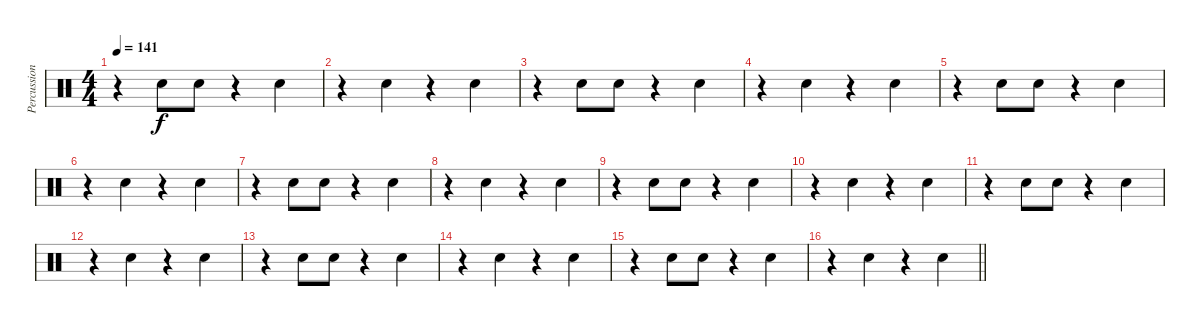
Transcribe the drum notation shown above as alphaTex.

\track ("Percussion" "Percussion") {instrument percussion}
\staff {score}
\articulation defaults
\ts (4 4)
\tempo 141
\clef neutral
\ks c
r.4{dy f} "Hand Clap (hit)".8 "Hand Clap (hit)".8 r.4 "Hand Clap (hit)".4 |
r.4 "Hand Clap (hit)".4 r.4 "Hand Clap (hit)".4 |
r.4 "Hand Clap (hit)".8 "Hand Clap (hit)".8 r.4 "Hand Clap (hit)".4 |
r.4 "Hand Clap (hit)".4 r.4 "Hand Clap (hit)".4 |
r.4 "Hand Clap (hit)".8 "Hand Clap (hit)".8 r.4 "Hand Clap (hit)".4 |
r.4 "Hand Clap (hit)".4 r.4 "Hand Clap (hit)".4 |
r.4 "Hand Clap (hit)".8 "Hand Clap (hit)".8 r.4 "Hand Clap (hit)".4 |
r.4 "Hand Clap (hit)".4 r.4 "Hand Clap (hit)".4 |
r.4 "Hand Clap (hit)".8 "Hand Clap (hit)".8 r.4 "Hand Clap (hit)".4 |
r.4 "Hand Clap (hit)".4 r.4 "Hand Clap (hit)".4 |
r.4 "Hand Clap (hit)".8 "Hand Clap (hit)".8 r.4 "Hand Clap (hit)".4 |
r.4 "Hand Clap (hit)".4 r.4 "Hand Clap (hit)".4 |
r.4 "Hand Clap (hit)".8 "Hand Clap (hit)".8 r.4 "Hand Clap (hit)".4 |
r.4 "Hand Clap (hit)".4 r.4 "Hand Clap (hit)".4 |
r.4 "Hand Clap (hit)".8 "Hand Clap (hit)".8 r.4 "Hand Clap (hit)".4 |
\barLineRight lightlight
r.4 "Hand Clap (hit)".4 r.4 "Hand Clap (hit)".4
